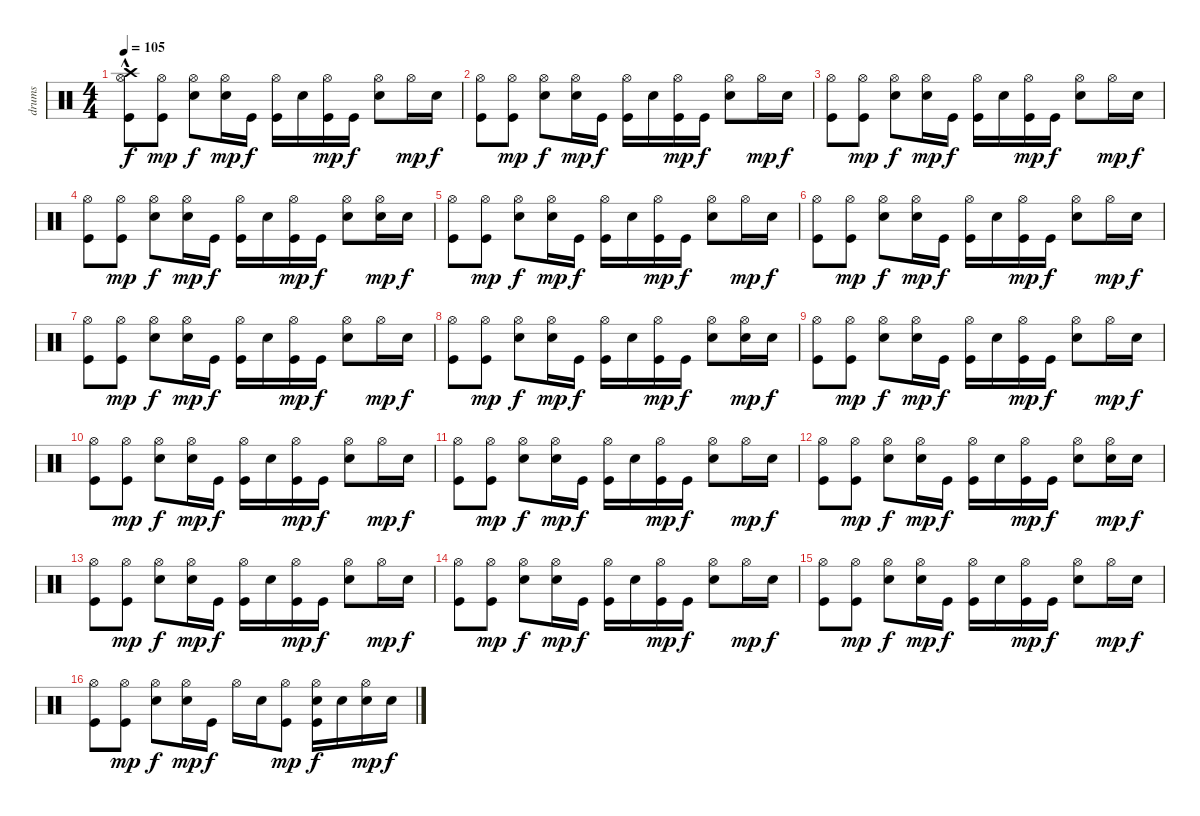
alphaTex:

\track ("drums" "drums") {instrument percussion}
\staff {score}
\articulation defaults
\ts (4 4)
\tempo 105
\clef neutral
\ks c
("Kick (hit)" "Crash high (hit)"{hac} "Hi-Hat (open)").8{dy f} ("Kick (hit)" "Hi-Hat (open)").8{dy mp} ("Snare (hit) 2" "Hi-Hat (open)").8{dy f} ("Snare (hit) 2" "Hi-Hat (open)").16{dy mp} "Kick (hit)".16{dy f} ("Kick (hit)" "Hi-Hat (open)").16 "Snare (hit) 2".16 ("Kick (hit)" "Hi-Hat (open)").16{dy mp} "Kick (hit)".16{dy f} ("Snare (hit) 2" "Hi-Hat (open)").8 "Hi-Hat (open)".16{dy mp} "Snare (hit) 2".16{dy f} |
("Hi-Hat (open)" "Kick (hit)").8 ("Kick (hit)" "Hi-Hat (open)").8{dy mp} ("Snare (hit) 2" "Hi-Hat (open)").8{dy f} ("Snare (hit) 2" "Hi-Hat (open)").16{dy mp} "Kick (hit)".16{dy f} ("Kick (hit)" "Hi-Hat (open)").16 "Snare (hit) 2".16 ("Kick (hit)" "Hi-Hat (open)").16{dy mp} "Kick (hit)".16{dy f} ("Snare (hit) 2" "Hi-Hat (open)").8 "Hi-Hat (open)".16{dy mp} "Snare (hit) 2".16{dy f} |
("Hi-Hat (open)" "Kick (hit)").8 ("Kick (hit)" "Hi-Hat (open)").8{dy mp} ("Snare (hit) 2" "Hi-Hat (open)").8{dy f} ("Snare (hit) 2" "Hi-Hat (open)").16{dy mp} "Kick (hit)".16{dy f} ("Kick (hit)" "Hi-Hat (open)").16 "Snare (hit) 2".16 ("Kick (hit)" "Hi-Hat (open)").16{dy mp} "Kick (hit)".16{dy f} ("Snare (hit) 2" "Hi-Hat (open)").8 "Hi-Hat (open)".16{dy mp} "Snare (hit) 2".16{dy f} |
("Hi-Hat (open)" "Kick (hit)").8 ("Kick (hit)" "Hi-Hat (open)").8{dy mp} ("Snare (hit) 2" "Hi-Hat (open)").8{dy f} ("Snare (hit) 2" "Hi-Hat (open)").16{dy mp} "Kick (hit)".16{dy f} ("Kick (hit)" "Hi-Hat (open)").16 "Snare (hit) 2".16 ("Kick (hit)" "Hi-Hat (open)").16{dy mp} "Kick (hit)".16{dy f} ("Snare (hit) 2" "Hi-Hat (open)").8 ("Hi-Hat (open)" "Snare (hit) 2").16{dy mp} "Snare (hit) 2".16{dy f} |
("Hi-Hat (open)" "Kick (hit)").8 ("Kick (hit)" "Hi-Hat (open)").8{dy mp} ("Snare (hit) 2" "Hi-Hat (open)").8{dy f} ("Snare (hit) 2" "Hi-Hat (open)").16{dy mp} "Kick (hit)".16{dy f} ("Kick (hit)" "Hi-Hat (open)").16 "Snare (hit) 2".16 ("Kick (hit)" "Hi-Hat (open)").16{dy mp} "Kick (hit)".16{dy f} ("Snare (hit) 2" "Hi-Hat (open)").8 "Hi-Hat (open)".16{dy mp} "Snare (hit) 2".16{dy f} |
("Hi-Hat (open)" "Kick (hit)").8 ("Kick (hit)" "Hi-Hat (open)").8{dy mp} ("Snare (hit) 2" "Hi-Hat (open)").8{dy f} ("Snare (hit) 2" "Hi-Hat (open)").16{dy mp} "Kick (hit)".16{dy f} ("Kick (hit)" "Hi-Hat (open)").16 "Snare (hit) 2".16 ("Kick (hit)" "Hi-Hat (open)").16{dy mp} "Kick (hit)".16{dy f} ("Snare (hit) 2" "Hi-Hat (open)").8 "Hi-Hat (open)".16{dy mp} "Snare (hit) 2".16{dy f} |
("Hi-Hat (open)" "Kick (hit)").8 ("Kick (hit)" "Hi-Hat (open)").8{dy mp} ("Snare (hit) 2" "Hi-Hat (open)").8{dy f} ("Snare (hit) 2" "Hi-Hat (open)").16{dy mp} "Kick (hit)".16{dy f} ("Kick (hit)" "Hi-Hat (open)").16 "Snare (hit) 2".16 ("Kick (hit)" "Hi-Hat (open)").16{dy mp} "Kick (hit)".16{dy f} ("Snare (hit) 2" "Hi-Hat (open)").8 "Hi-Hat (open)".16{dy mp} "Snare (hit) 2".16{dy f} |
("Hi-Hat (open)" "Kick (hit)").8 ("Kick (hit)" "Hi-Hat (open)").8{dy mp} ("Snare (hit) 2" "Hi-Hat (open)").8{dy f} ("Snare (hit) 2" "Hi-Hat (open)").16{dy mp} "Kick (hit)".16{dy f} ("Kick (hit)" "Hi-Hat (open)").16 "Snare (hit) 2".16 ("Kick (hit)" "Hi-Hat (open)").16{dy mp} "Kick (hit)".16{dy f} ("Snare (hit) 2" "Hi-Hat (open)").8 ("Hi-Hat (open)" "Snare (hit) 2").16{dy mp} "Snare (hit) 2".16{dy f} |
("Kick (hit)" "Hi-Hat (open)").8 ("Kick (hit)" "Hi-Hat (open)").8{dy mp} ("Snare (hit) 2" "Hi-Hat (open)").8{dy f} ("Snare (hit) 2" "Hi-Hat (open)").16{dy mp} "Kick (hit)".16{dy f} ("Kick (hit)" "Hi-Hat (open)").16 "Snare (hit) 2".16 ("Kick (hit)" "Hi-Hat (open)").16{dy mp} "Kick (hit)".16{dy f} ("Snare (hit) 2" "Hi-Hat (open)").8 "Hi-Hat (open)".16{dy mp} "Snare (hit) 2".16{dy f} |
("Hi-Hat (open)" "Kick (hit)").8 ("Kick (hit)" "Hi-Hat (open)").8{dy mp} ("Snare (hit) 2" "Hi-Hat (open)").8{dy f} ("Snare (hit) 2" "Hi-Hat (open)").16{dy mp} "Kick (hit)".16{dy f} ("Kick (hit)" "Hi-Hat (open)").16 "Snare (hit) 2".16 ("Kick (hit)" "Hi-Hat (open)").16{dy mp} "Kick (hit)".16{dy f} ("Snare (hit) 2" "Hi-Hat (open)").8 "Hi-Hat (open)".16{dy mp} "Snare (hit) 2".16{dy f} |
("Hi-Hat (open)" "Kick (hit)").8 ("Kick (hit)" "Hi-Hat (open)").8{dy mp} ("Snare (hit) 2" "Hi-Hat (open)").8{dy f} ("Snare (hit) 2" "Hi-Hat (open)").16{dy mp} "Kick (hit)".16{dy f} ("Kick (hit)" "Hi-Hat (open)").16 "Snare (hit) 2".16 ("Kick (hit)" "Hi-Hat (open)").16{dy mp} "Kick (hit)".16{dy f} ("Snare (hit) 2" "Hi-Hat (open)").8 "Hi-Hat (open)".16{dy mp} "Snare (hit) 2".16{dy f} |
("Hi-Hat (open)" "Kick (hit)").8 ("Kick (hit)" "Hi-Hat (open)").8{dy mp} ("Snare (hit) 2" "Hi-Hat (open)").8{dy f} ("Snare (hit) 2" "Hi-Hat (open)").16{dy mp} "Kick (hit)".16{dy f} ("Kick (hit)" "Hi-Hat (open)").16 "Snare (hit) 2".16 ("Kick (hit)" "Hi-Hat (open)").16{dy mp} "Kick (hit)".16{dy f} ("Snare (hit) 2" "Hi-Hat (open)").8 ("Hi-Hat (open)" "Snare (hit) 2").16{dy mp} "Snare (hit) 2".16{dy f} |
("Kick (hit)" "Hi-Hat (open)").8 ("Kick (hit)" "Hi-Hat (open)").8{dy mp} ("Snare (hit) 2" "Hi-Hat (open)").8{dy f} ("Snare (hit) 2" "Hi-Hat (open)").16{dy mp} "Kick (hit)".16{dy f} ("Kick (hit)" "Hi-Hat (open)").16 "Snare (hit) 2".16 ("Kick (hit)" "Hi-Hat (open)").16{dy mp} "Kick (hit)".16{dy f} ("Snare (hit) 2" "Hi-Hat (open)").8 "Hi-Hat (open)".16{dy mp} "Snare (hit) 2".16{dy f} |
("Hi-Hat (open)" "Kick (hit)").8 ("Kick (hit)" "Hi-Hat (open)").8{dy mp} ("Snare (hit) 2" "Hi-Hat (open)").8{dy f} ("Snare (hit) 2" "Hi-Hat (open)").16{dy mp} "Kick (hit)".16{dy f} ("Kick (hit)" "Hi-Hat (open)").16 "Snare (hit) 2".16 ("Kick (hit)" "Hi-Hat (open)").16{dy mp} "Kick (hit)".16{dy f} ("Snare (hit) 2" "Hi-Hat (open)").8 "Hi-Hat (open)".16{dy mp} "Snare (hit) 2".16{dy f} |
("Hi-Hat (open)" "Kick (hit)").8 ("Kick (hit)" "Hi-Hat (open)").8{dy mp} ("Snare (hit) 2" "Hi-Hat (open)").8{dy f} ("Snare (hit) 2" "Hi-Hat (open)").16{dy mp} "Kick (hit)".16{dy f} ("Kick (hit)" "Hi-Hat (open)").16 "Snare (hit) 2".16 ("Kick (hit)" "Hi-Hat (open)").16{dy mp} "Kick (hit)".16{dy f} ("Snare (hit) 2" "Hi-Hat (open)").8 "Hi-Hat (open)".16{dy mp} "Snare (hit) 2".16{dy f} |
("Hi-Hat (open)" "Kick (hit)").8 ("Kick (hit)" "Hi-Hat (open)").8{dy mp} ("Snare (hit) 2" "Hi-Hat (open)").8{dy f} ("Snare (hit) 2" "Hi-Hat (open)").16{dy mp} "Kick (hit)".16{dy f} "Hi-Hat (open)".16 "Snare (hit) 2".16 ("Kick (hit)" "Hi-Hat (open)").8{dy mp} ("Hi-Hat (open)" "Kick (hit)" "Snare (hit) 2").16{dy f} "Snare (hit) 2".16 ("Hi-Hat (open)" "Snare (hit) 2").16{dy mp} "Snare (hit) 2".16{dy f}
